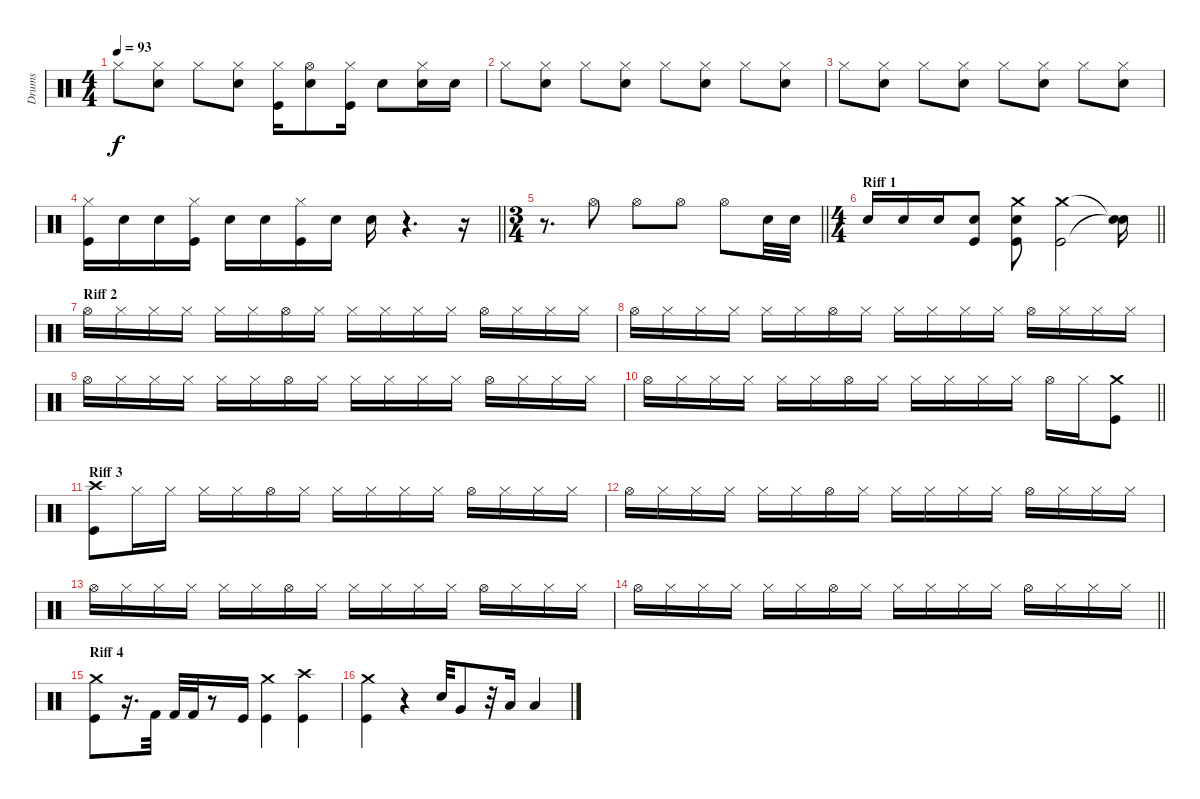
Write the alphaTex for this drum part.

\track ("Drums" "Drums") {instrument percussion}
\staff {score}
\articulation defaults
\ts (4 4)
\tempo 93
\clef neutral
\ks c "Hi-Hat (closed)".8{dy f}
("Hi-Hat (closed)" "Snare (hit) 2").8 "Hi-Hat (closed)".8 ("Hi-Hat (closed)" "Snare (hit) 2").8 ("Hi-Hat (closed)" "Kick (hit)").16 ("Hi-Hat (open)" "Electric Snare (hit)").8 ("Hi-Hat (closed)" "Kick (hit)").16 "Electric Snare (hit)".8 ("Hi-Hat (closed)" "Electric Snare (hit)").16 "Electric Snare (hit)".16 |
"Hi-Hat (closed)".8 ("Hi-Hat (closed)" "Snare (hit) 2").8 "Hi-Hat (closed)".8 ("Hi-Hat (closed)" "Snare (hit) 2").8 "Hi-Hat (closed)".8 ("Hi-Hat (closed)" "Snare (hit) 2").8 "Hi-Hat (closed)".8 ("Hi-Hat (closed)" "Snare (hit) 2").8 |
"Hi-Hat (closed)".8 ("Hi-Hat (closed)" "Snare (hit) 2").8 "Hi-Hat (closed)".8 ("Hi-Hat (closed)" "Snare (hit) 2").8 "Hi-Hat (closed)".8 ("Hi-Hat (closed)" "Snare (hit) 2").8 "Hi-Hat (closed)".8 ("Hi-Hat (closed)" "Snare (hit) 2").8 |
\barLineRight lightlight
("Hi-Hat (closed)" "Kick (hit)").16 "Electric Snare (hit)".16 "Electric Snare (hit)".16 ("Hi-Hat (closed)" "Kick (hit)").16 "Electric Snare (hit)".16 "Electric Snare (hit)".16 ("Hi-Hat (closed)" "Kick (hit)").16 "Electric Snare (hit)".16 "Electric Snare (hit)".16 r.4{d} r.16 |
\ts (3 4)
\barLineRight lightlight
r.8{d} "Hi-Hat (open)".8 "Hi-Hat (open)".8 "Hi-Hat (open)".8 "Hi-Hat (open)".8 "Electric Snare (hit)".32 "Electric Snare (hit)".32 |
\ts (4 4)
\section ("" "Riff 1")
\barLineRight lightlight "Electric Snare (hit)".16 "Electric Snare (hit)".16 "Electric Snare (hit)".16
("Electric Snare (hit)" "Kick (hit)").8 ("Electric Snare (hit)" "Kick (hit)" "Crash medium (hit)").8 ("Kick (hit)" "Crash medium (hit)").2 ("Snare (hit)"{t} "Snare (hit)"{t}).16 |
\section ("" "Riff 2")
"Hi-Hat (open)".16 "Hi-Hat (closed)".16 "Hi-Hat (closed)".16 "Hi-Hat (closed)".16 "Hi-Hat (closed)".16 "Hi-Hat (closed)".16 "Hi-Hat (open)".16 "Hi-Hat (closed)".16 "Hi-Hat (closed)".16 "Hi-Hat (closed)".16 "Hi-Hat (closed)".16 "Hi-Hat (closed)".16 "Hi-Hat (open)".16 "Hi-Hat (closed)".16 "Hi-Hat (closed)".16 "Hi-Hat (closed)".16 |
"Hi-Hat (open)".16 "Hi-Hat (closed)".16 "Hi-Hat (closed)".16 "Hi-Hat (closed)".16 "Hi-Hat (closed)".16 "Hi-Hat (closed)".16 "Hi-Hat (open)".16 "Hi-Hat (closed)".16 "Hi-Hat (closed)".16 "Hi-Hat (closed)".16 "Hi-Hat (closed)".16 "Hi-Hat (closed)".16 "Hi-Hat (open)".16 "Hi-Hat (closed)".16 "Hi-Hat (closed)".16 "Hi-Hat (closed)".16 |
"Hi-Hat (open)".16 "Hi-Hat (closed)".16 "Hi-Hat (closed)".16 "Hi-Hat (closed)".16 "Hi-Hat (closed)".16 "Hi-Hat (closed)".16 "Hi-Hat (open)".16 "Hi-Hat (closed)".16 "Hi-Hat (closed)".16 "Hi-Hat (closed)".16 "Hi-Hat (closed)".16 "Hi-Hat (closed)".16 "Hi-Hat (open)".16 "Hi-Hat (closed)".16 "Hi-Hat (closed)".16 "Hi-Hat (closed)".16 |
\barLineRight lightlight "Hi-Hat (open)".16 "Hi-Hat (closed)".16 "Hi-Hat (closed)".16 "Hi-Hat (closed)".16 "Hi-Hat (closed)".16 "Hi-Hat (closed)".16 "Hi-Hat (open)".16 "Hi-Hat (closed)".16 "Hi-Hat (closed)".16 "Hi-Hat (closed)".16 "Hi-Hat (closed)".16 "Hi-Hat (closed)".16 "Hi-Hat (open)".16 "Hi-Hat (closed)".16
("Kick (hit)" "Crash medium (hit)").8 |
\section ("" "Riff 3")
("Kick (hit)" "Crash high (hit)").8 "Hi-Hat (closed)".16 "Hi-Hat (closed)".16 "Hi-Hat (closed)".16 "Hi-Hat (closed)".16 "Hi-Hat (open)".16 "Hi-Hat (closed)".16 "Hi-Hat (closed)".16 "Hi-Hat (closed)".16 "Hi-Hat (closed)".16 "Hi-Hat (closed)".16 "Hi-Hat (open)".16 "Hi-Hat (closed)".16 "Hi-Hat (closed)".16 "Hi-Hat (closed)".16 |
"Hi-Hat (open)".16 "Hi-Hat (closed)".16 "Hi-Hat (closed)".16 "Hi-Hat (closed)".16 "Hi-Hat (closed)".16 "Hi-Hat (closed)".16 "Hi-Hat (open)".16 "Hi-Hat (closed)".16 "Hi-Hat (closed)".16 "Hi-Hat (closed)".16 "Hi-Hat (closed)".16 "Hi-Hat (closed)".16 "Hi-Hat (open)".16 "Hi-Hat (closed)".16 "Hi-Hat (closed)".16 "Hi-Hat (closed)".16 |
"Hi-Hat (open)".16 "Hi-Hat (closed)".16 "Hi-Hat (closed)".16 "Hi-Hat (closed)".16 "Hi-Hat (closed)".16 "Hi-Hat (closed)".16 "Hi-Hat (open)".16 "Hi-Hat (closed)".16 "Hi-Hat (closed)".16 "Hi-Hat (closed)".16 "Hi-Hat (closed)".16 "Hi-Hat (closed)".16 "Hi-Hat (open)".16 "Hi-Hat (closed)".16 "Hi-Hat (closed)".16 "Hi-Hat (closed)".16 |
\barLineRight lightlight "Hi-Hat (open)".16 "Hi-Hat (closed)".16 "Hi-Hat (closed)".16 "Hi-Hat (closed)".16 "Hi-Hat (closed)".16 "Hi-Hat (closed)".16 "Hi-Hat (open)".16 "Hi-Hat (closed)".16 "Hi-Hat (closed)".16 "Hi-Hat (closed)".16 "Hi-Hat (closed)".16 "Hi-Hat (closed)".16 "Hi-Hat (open)".16 "Hi-Hat (closed)".16 "Hi-Hat (closed)".16 "Hi-Hat (closed)".16
|
\section ("" "Riff 4")
("Kick (hit)" "Crash medium (hit)").8 r.16{d} "Kick (hit) 2".32 "Kick (hit) 2".32 "Kick (hit) 2".32 r.8 "Kick (hit)".16 ("Kick (hit)" "Crash medium (hit)").4 ("Kick (hit)" "Crash high (hit)").4 |
("Kick (hit)" "Crash medium (hit)").4 r.4 "Snare (hit) 2".32 "Very Low Tom (hit)".8 r.32 "Low Tom (hit)".16 "Low Floor Tom (hit)".4
